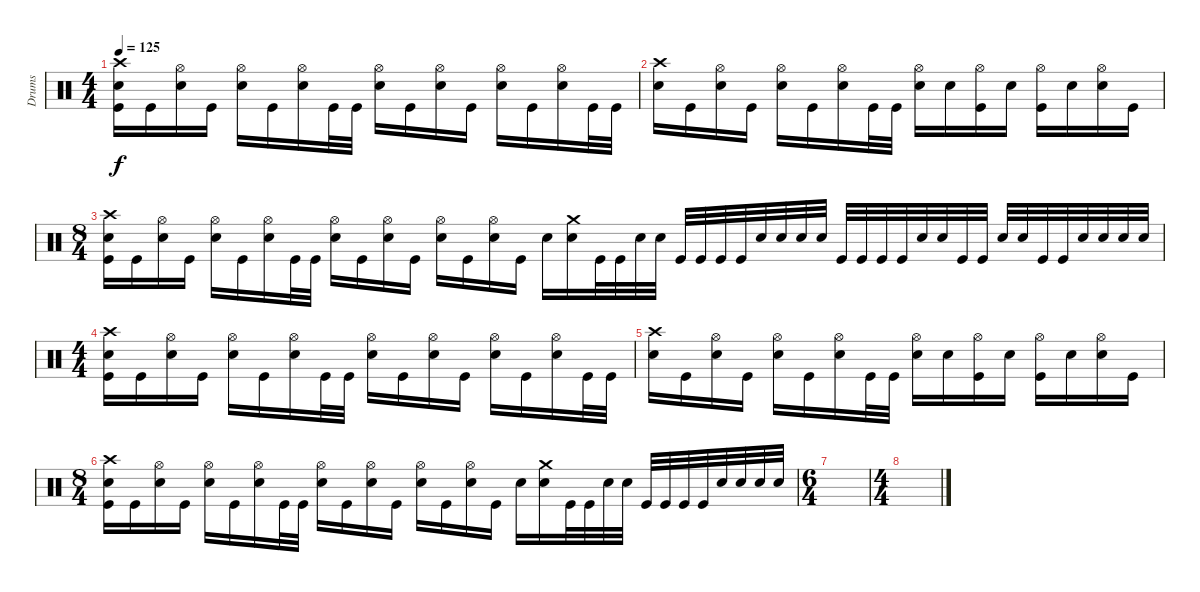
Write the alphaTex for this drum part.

\track ("Drums" "Drums") {instrument percussion}
\staff
\articulation defaults
\ts (4 4)
\tempo 125
\clef neutral
\ks c
("Crash high (hit)" "Electric Snare (hit)" "Kick (hit)").16{dy f} "Kick (hit)".16 ("Hi-Hat (open)" "Electric Snare (hit)").16 "Kick (hit)".16 ("Hi-Hat (open)" "Electric Snare (hit)").16 "Kick (hit)".16 ("Hi-Hat (open)" "Electric Snare (hit)").16 "Kick (hit)".32 "Kick (hit)".32 ("Hi-Hat (open)" "Electric Snare (hit)").16 "Kick (hit)".16 ("Hi-Hat (open)" "Electric Snare (hit)").16 "Kick (hit)".16 ("Hi-Hat (open)" "Electric Snare (hit)").16 "Kick (hit)".16 ("Hi-Hat (open)" "Electric Snare (hit)").16 "Kick (hit)".32 "Kick (hit)".32 |
("Crash high (hit)" "Electric Snare (hit)").16 "Kick (hit)".16 ("Hi-Hat (open)" "Electric Snare (hit)").16 "Kick (hit)".16 ("Hi-Hat (open)" "Electric Snare (hit)").16 "Kick (hit)".16 ("Hi-Hat (open)" "Electric Snare (hit)").16 "Kick (hit)".32 "Kick (hit)".32 ("Hi-Hat (open)" "Electric Snare (hit)").16 "Electric Snare (hit)".16 ("Hi-Hat (open)" "Kick (hit)").16 "Electric Snare (hit)".16 ("Hi-Hat (open)" "Kick (hit)").16 "Electric Snare (hit)".16 ("Hi-Hat (open)" "Electric Snare (hit)").16 "Kick (hit)".16 |
\ts (8 4)
("Crash high (hit)" "Electric Snare (hit)" "Kick (hit)").16 "Kick (hit)".16 ("Hi-Hat (open)" "Electric Snare (hit)").16 "Kick (hit)".16 ("Hi-Hat (open)" "Electric Snare (hit)").16 "Kick (hit)".16 ("Hi-Hat (open)" "Electric Snare (hit)").16 "Kick (hit)".32 "Kick (hit)".32 ("Hi-Hat (open)" "Electric Snare (hit)").16 "Kick (hit)".16 ("Hi-Hat (open)" "Electric Snare (hit)").16 "Kick (hit)".16 ("Hi-Hat (open)" "Electric Snare (hit)").16 "Kick (hit)".16 ("Hi-Hat (open)" "Electric Snare (hit)").16 "Kick (hit)".16 "Electric Snare (hit)".16 ("Crash medium (hit)" "Electric Snare (hit)").16 "Kick (hit)".32 "Kick (hit)".32 "Electric Snare (hit)".32 "Electric Snare (hit)".32 "Kick (hit)".32 "Kick (hit)".32 "Kick (hit)".32 "Kick (hit)".32 "Electric Snare (hit)".32 "Electric Snare (hit)".32 "Electric Snare (hit)".32 "Electric Snare (hit)".32 "Kick (hit)".32 "Kick (hit)".32 "Kick (hit)".32 "Kick (hit)".32 "Electric Snare (hit)".32 "Electric Snare (hit)".32 "Kick (hit)".32 "Kick (hit)".32 "Electric Snare (hit)".32 "Electric Snare (hit)".32 "Kick (hit)".32 "Kick (hit)".32 "Electric Snare (hit)".32 "Electric Snare (hit)".32 "Electric Snare (hit)".32 "Electric Snare (hit)".32 |
\ts (4 4)
("Crash high (hit)" "Electric Snare (hit)" "Kick (hit)").16 "Kick (hit)".16 ("Hi-Hat (open)" "Electric Snare (hit)").16 "Kick (hit)".16 ("Hi-Hat (open)" "Electric Snare (hit)").16 "Kick (hit)".16 ("Hi-Hat (open)" "Electric Snare (hit)").16 "Kick (hit)".32 "Kick (hit)".32 ("Hi-Hat (open)" "Electric Snare (hit)").16 "Kick (hit)".16 ("Hi-Hat (open)" "Electric Snare (hit)").16 "Kick (hit)".16 ("Hi-Hat (open)" "Electric Snare (hit)").16 "Kick (hit)".16 ("Hi-Hat (open)" "Electric Snare (hit)").16 "Kick (hit)".32 "Kick (hit)".32 |
("Crash high (hit)" "Electric Snare (hit)").16 "Kick (hit)".16 ("Hi-Hat (open)" "Electric Snare (hit)").16 "Kick (hit)".16 ("Hi-Hat (open)" "Electric Snare (hit)").16 "Kick (hit)".16 ("Hi-Hat (open)" "Electric Snare (hit)").16 "Kick (hit)".32 "Kick (hit)".32 ("Hi-Hat (open)" "Electric Snare (hit)").16 "Electric Snare (hit)".16 ("Hi-Hat (open)" "Kick (hit)").16 "Electric Snare (hit)".16 ("Hi-Hat (open)" "Kick (hit)").16 "Electric Snare (hit)".16 ("Hi-Hat (open)" "Electric Snare (hit)").16 "Kick (hit)".16 |
\ts (8 4)
("Crash high (hit)" "Electric Snare (hit)" "Kick (hit)").16 "Kick (hit)".16 ("Hi-Hat (open)" "Electric Snare (hit)").16 "Kick (hit)".16 ("Hi-Hat (open)" "Electric Snare (hit)").16 "Kick (hit)".16 ("Hi-Hat (open)" "Electric Snare (hit)").16 "Kick (hit)".32 "Kick (hit)".32 ("Hi-Hat (open)" "Electric Snare (hit)").16 "Kick (hit)".16 ("Hi-Hat (open)" "Electric Snare (hit)").16 "Kick (hit)".16 ("Hi-Hat (open)" "Electric Snare (hit)").16 "Kick (hit)".16 ("Hi-Hat (open)" "Electric Snare (hit)").16 "Kick (hit)".16 "Electric Snare (hit)".16 ("Crash medium (hit)" "Electric Snare (hit)").16 "Kick (hit)".32 "Kick (hit)".32 "Electric Snare (hit)".32 "Electric Snare (hit)".32 "Kick (hit)".32 "Kick (hit)".32 "Kick (hit)".32 "Kick (hit)".32 "Electric Snare (hit)".32 "Electric Snare (hit)".32 "Electric Snare (hit)".32 "Electric Snare (hit)".32 |
\ts (6 4)
|
\ts (4 4)
